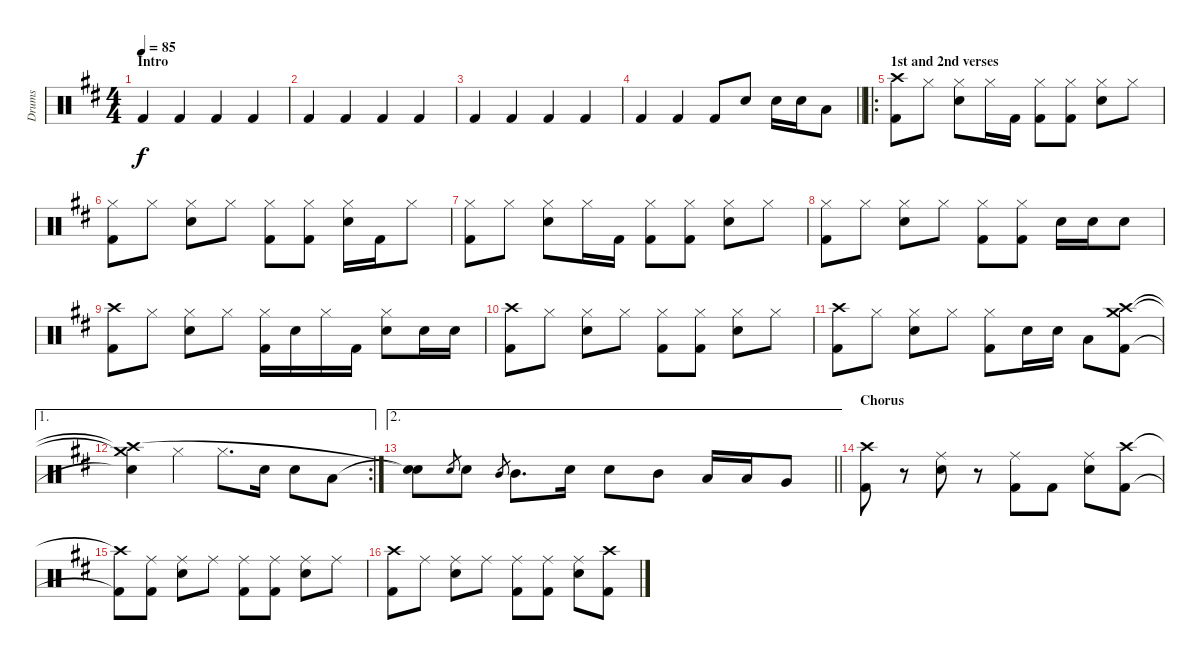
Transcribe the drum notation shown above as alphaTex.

\track ("Drums" "Drums") {instrument percussion}
\staff {score}
\articulation defaults
\ts (4 4)
\section ("" "Intro")
\tempo 85
\clef neutral
\ks d "Kick (hit) 2".4{dy f} "Kick (hit) 2".4 "Kick (hit) 2".4 "Kick (hit) 2".4
|
"Kick (hit) 2".4 "Kick (hit) 2".4 "Kick (hit) 2".4 "Kick (hit) 2".4 |
"Kick (hit) 2".4 "Kick (hit) 2".4 "Kick (hit) 2".4 "Kick (hit) 2".4 |
\barLineRight lightlight "Kick (hit) 2".4 "Kick (hit) 2".4 "Kick (hit) 2".8 "Snare (hit) 2".8 "Snare (hit) 2".16 "Snare (hit) 2".16 "Low Tom (hit)".8
|
\ro
\section ("" "1st and 2nd verses")
("Crash high (hit)" "Kick (hit) 2").8 "Hi-Hat (closed)".8 ("Hi-Hat (closed)" "Snare (hit) 2").8 "Hi-Hat (closed)".16 "Kick (hit) 2".16 ("Hi-Hat (closed)" "Kick (hit) 2").8 ("Hi-Hat (closed)" "Kick (hit) 2").8 ("Hi-Hat (closed)" "Snare (hit) 2").8 "Hi-Hat (closed)".8 |
("Hi-Hat (closed)" "Kick (hit) 2").8 "Hi-Hat (closed)".8 ("Hi-Hat (closed)" "Snare (hit) 2").8 "Hi-Hat (closed)".8 ("Hi-Hat (closed)" "Kick (hit) 2").8 ("Hi-Hat (closed)" "Kick (hit) 2").8 ("Hi-Hat (closed)" "Snare (hit) 2").16 "Kick (hit) 2".16 "Hi-Hat (closed)".8 |
("Hi-Hat (closed)" "Kick (hit) 2").8 "Hi-Hat (closed)".8 ("Hi-Hat (closed)" "Snare (hit) 2").8 "Hi-Hat (closed)".16 "Kick (hit) 2".16 ("Hi-Hat (closed)" "Kick (hit) 2").8 ("Hi-Hat (closed)" "Kick (hit) 2").8 ("Hi-Hat (closed)" "Snare (hit) 2").8 "Hi-Hat (closed)".8 |
("Hi-Hat (closed)" "Kick (hit) 2").8 "Hi-Hat (closed)".8 ("Hi-Hat (closed)" "Snare (hit) 2").8 "Hi-Hat (closed)".8 ("Hi-Hat (closed)" "Kick (hit) 2").8 ("Hi-Hat (closed)" "Kick (hit) 2").8 "Snare (hit) 2".16 "Snare (hit) 2".16 "Snare (hit) 2".8 |
("Crash high (hit)" "Kick (hit) 2").8 "Hi-Hat (closed)".8 ("Hi-Hat (closed)" "Snare (hit) 2").8 "Hi-Hat (closed)".8 ("Hi-Hat (closed)" "Kick (hit) 2").16 "Snare (hit) 2".16 "Hi-Hat (closed)".16 "Kick (hit) 2".16 ("Hi-Hat (closed)" "Snare (hit) 2").8 "Snare (hit) 2".16 "Snare (hit) 2".16 |
("Crash high (hit)" "Kick (hit) 2").8 "Hi-Hat (closed)".8 ("Hi-Hat (closed)" "Snare (hit) 2").8 "Hi-Hat (closed)".8 ("Hi-Hat (closed)" "Kick (hit) 2").8 ("Hi-Hat (closed)" "Kick (hit) 2").8 ("Hi-Hat (closed)" "Snare (hit) 2").8 "Hi-Hat (closed)".8 |
("Crash high (hit)" "Kick (hit) 2").8 "Hi-Hat (closed)".8 ("Hi-Hat (closed)" "Snare (hit) 2").8 "Hi-Hat (closed)".8 ("Hi-Hat (closed)" "Kick (hit) 2").8 "Snare (hit) 2".16 "Snare (hit) 2".16 "Low Tom (hit)".8 ("Crash medium (hit)" "Crash high (hit)" "Kick (hit) 2").8 |
\ae 1
\rc 2
("Crash medium (hit)"{t} "Crash high (hit)"{t} "Snare (hit)"{t}).4 "Hi-Hat (closed)".4 "Hi-Hat (closed)".8{d} "Snare (hit) 2".16 "Snare (hit) 2".8 "Low Tom (hit)".8 |
\ae 2
\barLineRight lightlight
("Snare (hit)"{t} "Snare (hit)"{t}).8 "Snare (hit) 2".8{gr} "Snare (hit) 2".8 "Mid Tom (hit)".8{gr} "Mid Tom (hit)".8{d} "Snare (hit) 2".16 "Snare (hit) 2".8 "Mid Tom (hit)".8 "Low Tom (hit)".16 "Low Tom (hit)".16 "Very Low Tom (hit)".8 |
\section ("" "Chorus")
("Crash high (hit)" "Kick (hit) 2").8 r.8 ("Ride (middle)" "Snare (hit) 2").8 r.8 ("Ride (middle)" "Kick (hit) 2").8 "Kick (hit) 2".8 ("Ride (middle)" "Snare (hit) 2").8 ("Crash high (hit)" "Kick (hit) 2").8 |
("Crash high (hit)"{t} "Kick (hit) 2"{t}).8 ("Ride (middle)" "Kick (hit) 2").8 ("Ride (middle)" "Snare (hit) 2").8 "Ride (middle)".8 ("Ride (middle)" "Kick (hit) 2").8 ("Ride (middle)" "Kick (hit) 2").8 ("Ride (middle)" "Snare (hit) 2").8 "Ride (middle)".8 |
("Crash high (hit)" "Kick (hit) 2").8 "Ride (middle)".8 ("Ride (middle)" "Snare (hit) 2").8 "Ride (middle)".8 ("Ride (middle)" "Kick (hit) 2").8 ("Ride (middle)" "Kick (hit) 2").8 ("Ride (middle)" "Snare (hit) 2").8 ("Crash high (hit)" "Kick (hit) 2").8
